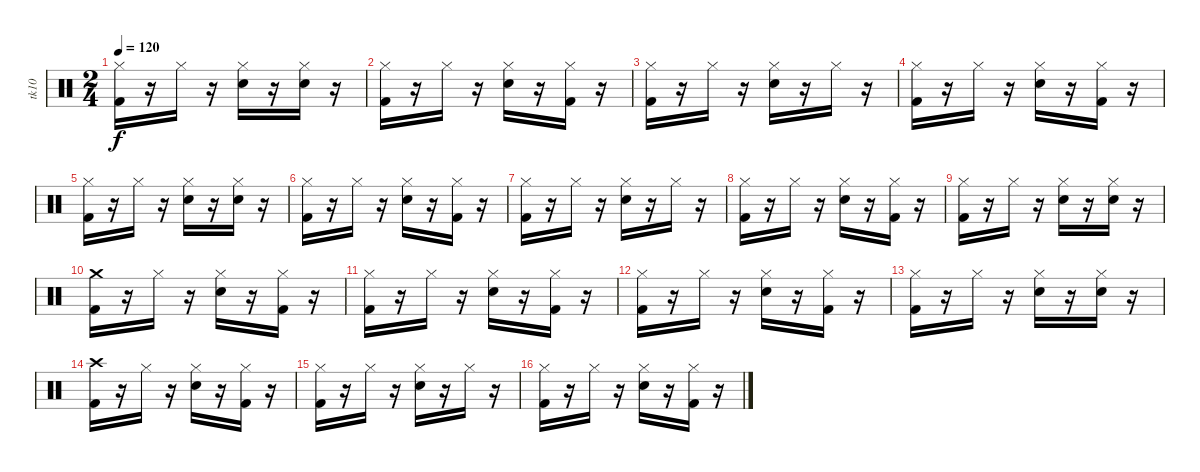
\track ("tk10" "tk10") {instrument percussion}
\staff {score}
\articulation defaults
\ts (2 4)
\tempo 120
\clef neutral
\ks c
("Hi-Hat (closed)" "Kick (hit) 2").16{dy f} r.16 "Hi-Hat (closed)".16 r.16 ("Snare (hit) 2" "Hi-Hat (closed)").16 r.16 ("Hi-Hat (closed)" "Snare (hit) 2").16 r.16 |
("Hi-Hat (closed)" "Kick (hit) 2").16 r.16 "Hi-Hat (closed)".16 r.16 ("Hi-Hat (closed)" "Snare (hit) 2").16 r.16 ("Kick (hit) 2" "Hi-Hat (closed)").16 r.16 |
("Kick (hit) 2" "Hi-Hat (closed)").16 r.16 "Hi-Hat (closed)".16 r.16 ("Snare (hit) 2" "Hi-Hat (closed)").16 r.16 "Hi-Hat (closed)".16 r.16 |
("Hi-Hat (closed)" "Kick (hit) 2").16 r.16 "Hi-Hat (closed)".16 r.16 ("Hi-Hat (closed)" "Snare (hit) 2").16 r.16 ("Hi-Hat (closed)" "Kick (hit) 2").16 r.16 |
("Kick (hit) 2" "Hi-Hat (closed)").16 r.16 "Hi-Hat (closed)".16 r.16 ("Hi-Hat (closed)" "Snare (hit) 2").16 r.16 ("Hi-Hat (closed)" "Snare (hit) 2").16 r.16 |
("Hi-Hat (closed)" "Kick (hit) 2").16 r.16 "Hi-Hat (closed)".16 r.16 ("Snare (hit) 2" "Hi-Hat (closed)").16 r.16 ("Hi-Hat (closed)" "Kick (hit) 2").16 r.16 |
("Hi-Hat (closed)" "Kick (hit) 2").16 r.16 "Hi-Hat (closed)".16 r.16 ("Snare (hit) 2" "Hi-Hat (closed)").16 r.16 "Hi-Hat (closed)".16 r.16 |
("Kick (hit) 2" "Hi-Hat (closed)").16 r.16 "Hi-Hat (closed)".16 r.16 ("Hi-Hat (closed)" "Snare (hit) 2").16 r.16 ("Hi-Hat (closed)" "Kick (hit) 2").16 r.16 |
("Hi-Hat (closed)" "Kick (hit) 2").16 r.16 "Hi-Hat (closed)".16 r.16 ("Hi-Hat (closed)" "Snare (hit) 2").16 r.16 ("Hi-Hat (closed)" "Snare (hit) 2").16 r.16 |
("Kick (hit) 2" "Crash medium (hit)").16 r.16 "Hi-Hat (closed)".16 r.16 ("Hi-Hat (closed)" "Snare (hit) 2").16 r.16 ("Hi-Hat (closed)" "Kick (hit) 2").16 r.16 |
("Kick (hit) 2" "Hi-Hat (closed)").16 r.16 "Hi-Hat (closed)".16 r.16 ("Snare (hit) 2" "Hi-Hat (closed)").16 r.16 ("Kick (hit) 2" "Hi-Hat (closed)").16 r.16 |
("Kick (hit) 2" "Hi-Hat (closed)").16 r.16 "Hi-Hat (closed)".16 r.16 ("Hi-Hat (closed)" "Snare (hit) 2").16 r.16 ("Hi-Hat (closed)" "Kick (hit) 2").16 r.16 |
("Hi-Hat (closed)" "Kick (hit) 2").16 r.16 "Hi-Hat (closed)".16 r.16 ("Hi-Hat (closed)" "Snare (hit) 2").16 r.16 ("Snare (hit) 2" "Hi-Hat (closed)").16 r.16 |
("Crash high (hit)" "Kick (hit) 2").16 r.16 "Hi-Hat (closed)".16 r.16 ("Snare (hit) 2" "Hi-Hat (closed)").16 r.16 ("Kick (hit) 2" "Hi-Hat (closed)").16 r.16 |
("Kick (hit) 2" "Hi-Hat (closed)").16 r.16 "Hi-Hat (closed)".16 r.16 ("Hi-Hat (closed)" "Snare (hit) 2").16 r.16 "Hi-Hat (closed)".16 r.16 |
("Kick (hit) 2" "Hi-Hat (closed)").16 r.16 "Hi-Hat (closed)".16 r.16 ("Snare (hit) 2" "Hi-Hat (closed)").16 r.16 ("Hi-Hat (closed)" "Kick (hit) 2").16 r.16
